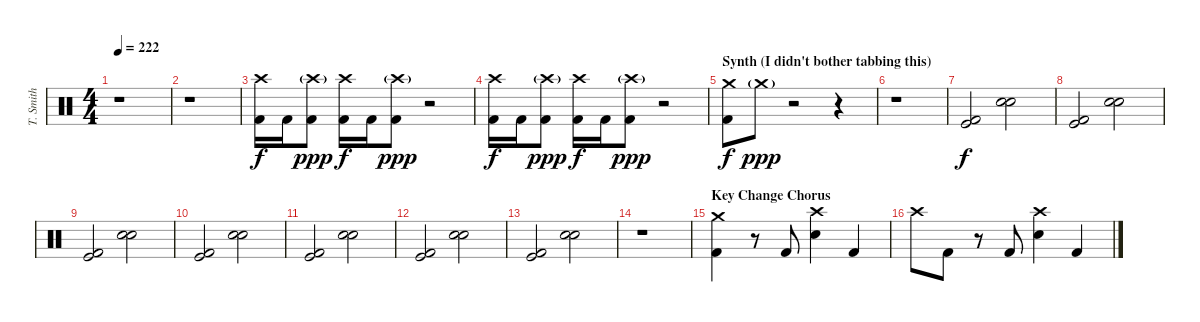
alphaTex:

\track ("T. Smith" "T. Smith") {instrument percussion}
\staff {score}
\articulation defaults
\ts (4 4)
\tempo 222
\clef neutral
\ks c
r.1{dy ppp} |
r.1 |
("Crash high (hit)" "Kick (hit) 2").16{dy f} "Kick (hit) 2".16 ("Crash high (hit)"{g} "Kick (hit) 2").8{dy ppp} ("Crash high (hit)" "Kick (hit) 2").16{dy f} "Kick (hit) 2".16 ("Crash high (hit)"{g} "Kick (hit) 2").8{dy ppp} r.2 |
("Crash high (hit)" "Kick (hit) 2").16{dy f} "Kick (hit) 2".16 ("Crash high (hit)"{g} "Kick (hit) 2").8{dy ppp} ("Crash high (hit)" "Kick (hit) 2").16{dy f} "Kick (hit) 2".16 ("Crash high (hit)"{g} "Kick (hit) 2").8{dy ppp} r.2 |
\section ("" "Synth (I didn't bother tabbing this)")
("Crash medium (hit)" "Kick (hit) 2").8{dy f} "Crash medium (hit)"{g}.8{dy ppp} r.2 r.4 |
r.1 |
("Kick (hit) 2" "Kick (hit)").2{dy f volume 7} ("Snare (hit) 2" "Electric Snare (hit)").2 |
("Kick (hit) 2" "Kick (hit)").2 ("Snare (hit) 2" "Electric Snare (hit)").2 |
("Kick (hit) 2" "Kick (hit)").2{volume 7} ("Snare (hit) 2" "Electric Snare (hit)").2 |
("Kick (hit) 2" "Kick (hit)").2 ("Snare (hit) 2" "Electric Snare (hit)").2 |
("Kick (hit) 2" "Kick (hit)").2{volume 7} ("Snare (hit) 2" "Electric Snare (hit)").2 |
("Kick (hit) 2" "Kick (hit)").2 ("Snare (hit) 2" "Electric Snare (hit)").2 |
("Kick (hit) 2" "Kick (hit)").2 ("Snare (hit) 2" "Electric Snare (hit)").2 |
r.1 |
\section ("" "Key Change Chorus")
("Crash medium (hit)" "Kick (hit) 2").4{volume 16 balance 8} r.8 "Kick (hit) 2".8 ("Crash high (hit)" "Electric Snare (hit)").4 "Kick (hit) 2".4 |
"Crash high (hit)".8 "Kick (hit) 2".8 r.8 "Kick (hit) 2".8 ("Crash high (hit)" "Electric Snare (hit)").4 "Kick (hit) 2".4
